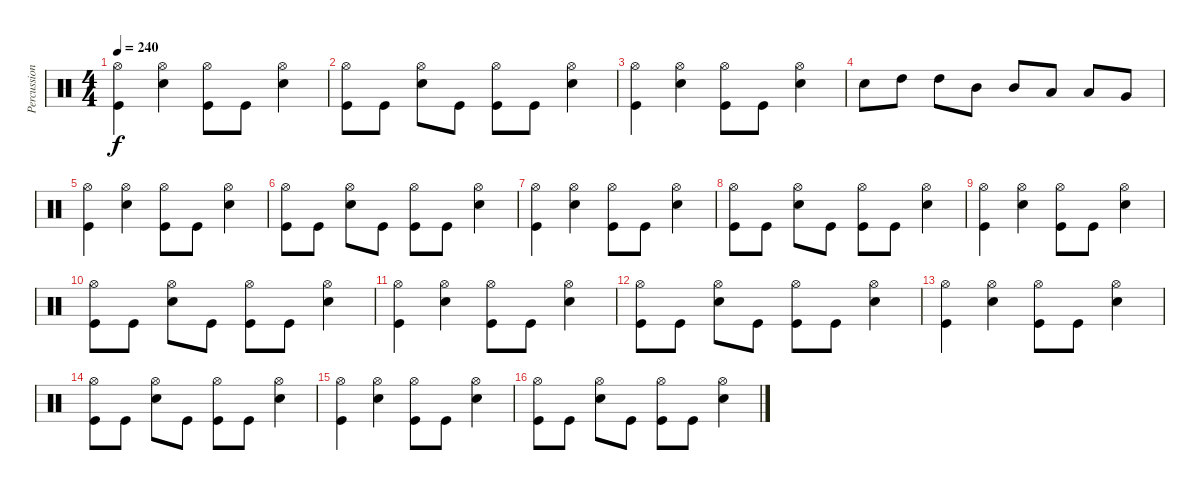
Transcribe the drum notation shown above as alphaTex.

\track ("Percussions" "Percussion") {instrument percussion}
\staff {score}
\articulation defaults
\ts (4 4)
\tempo 240
\clef neutral
\ks c
("Kick (hit)" "Hi-Hat (open)").4{dy f} ("Electric Snare (hit)" "Hi-Hat (open)").4 ("Kick (hit)" "Hi-Hat (open)").8 "Kick (hit)".8 ("Electric Snare (hit)" "Hi-Hat (open)").4 |
("Kick (hit)" "Hi-Hat (open)").8 "Kick (hit)".8 ("Electric Snare (hit)" "Hi-Hat (open)").8 "Kick (hit)".8 ("Kick (hit)" "Hi-Hat (open)").8 "Kick (hit)".8 ("Electric Snare (hit)" "Hi-Hat (open)").4 |
("Kick (hit)" "Hi-Hat (open)").4 ("Electric Snare (hit)" "Hi-Hat (open)").4 ("Kick (hit)" "Hi-Hat (open)").8 "Kick (hit)".8 ("Electric Snare (hit)" "Hi-Hat (open)").4 |
"Electric Snare (hit)".8 "High Tom (hit)".8 "High Tom (hit)".8 "Mid Tom (hit)".8 "Mid Tom (hit)".8 "Low Tom (hit)".8 "Low Tom (hit)".8 "Very Low Tom (hit)".8 |
("Kick (hit)" "Hi-Hat (open)").4 ("Electric Snare (hit)" "Hi-Hat (open)").4 ("Kick (hit)" "Hi-Hat (open)").8 "Kick (hit)".8 ("Electric Snare (hit)" "Hi-Hat (open)").4 |
("Kick (hit)" "Hi-Hat (open)").8 "Kick (hit)".8 ("Electric Snare (hit)" "Hi-Hat (open)").8 "Kick (hit)".8 ("Kick (hit)" "Hi-Hat (open)").8 "Kick (hit)".8 ("Electric Snare (hit)" "Hi-Hat (open)").4 |
("Kick (hit)" "Hi-Hat (open)").4 ("Electric Snare (hit)" "Hi-Hat (open)").4 ("Kick (hit)" "Hi-Hat (open)").8 "Kick (hit)".8 ("Electric Snare (hit)" "Hi-Hat (open)").4 |
("Kick (hit)" "Hi-Hat (open)").8 "Kick (hit)".8 ("Electric Snare (hit)" "Hi-Hat (open)").8 "Kick (hit)".8 ("Kick (hit)" "Hi-Hat (open)").8 "Kick (hit)".8 ("Electric Snare (hit)" "Hi-Hat (open)").4 |
("Kick (hit)" "Hi-Hat (open)").4 ("Electric Snare (hit)" "Hi-Hat (open)").4 ("Kick (hit)" "Hi-Hat (open)").8 "Kick (hit)".8 ("Electric Snare (hit)" "Hi-Hat (open)").4 |
("Kick (hit)" "Hi-Hat (open)").8 "Kick (hit)".8 ("Electric Snare (hit)" "Hi-Hat (open)").8 "Kick (hit)".8 ("Kick (hit)" "Hi-Hat (open)").8 "Kick (hit)".8 ("Electric Snare (hit)" "Hi-Hat (open)").4 |
("Kick (hit)" "Hi-Hat (open)").4 ("Electric Snare (hit)" "Hi-Hat (open)").4 ("Kick (hit)" "Hi-Hat (open)").8 "Kick (hit)".8 ("Electric Snare (hit)" "Hi-Hat (open)").4 |
("Kick (hit)" "Hi-Hat (open)").8 "Kick (hit)".8 ("Electric Snare (hit)" "Hi-Hat (open)").8 "Kick (hit)".8 ("Kick (hit)" "Hi-Hat (open)").8 "Kick (hit)".8 ("Electric Snare (hit)" "Hi-Hat (open)").4 |
("Kick (hit)" "Hi-Hat (open)").4 ("Electric Snare (hit)" "Hi-Hat (open)").4 ("Kick (hit)" "Hi-Hat (open)").8 "Kick (hit)".8 ("Electric Snare (hit)" "Hi-Hat (open)").4 |
("Kick (hit)" "Hi-Hat (open)").8 "Kick (hit)".8 ("Electric Snare (hit)" "Hi-Hat (open)").8 "Kick (hit)".8 ("Kick (hit)" "Hi-Hat (open)").8 "Kick (hit)".8 ("Electric Snare (hit)" "Hi-Hat (open)").4 |
("Kick (hit)" "Hi-Hat (open)").4 ("Electric Snare (hit)" "Hi-Hat (open)").4 ("Kick (hit)" "Hi-Hat (open)").8 "Kick (hit)".8 ("Electric Snare (hit)" "Hi-Hat (open)").4 |
("Kick (hit)" "Hi-Hat (open)").8 "Kick (hit)".8 ("Electric Snare (hit)" "Hi-Hat (open)").8 "Kick (hit)".8 ("Kick (hit)" "Hi-Hat (open)").8 "Kick (hit)".8 ("Electric Snare (hit)" "Hi-Hat (open)").4
